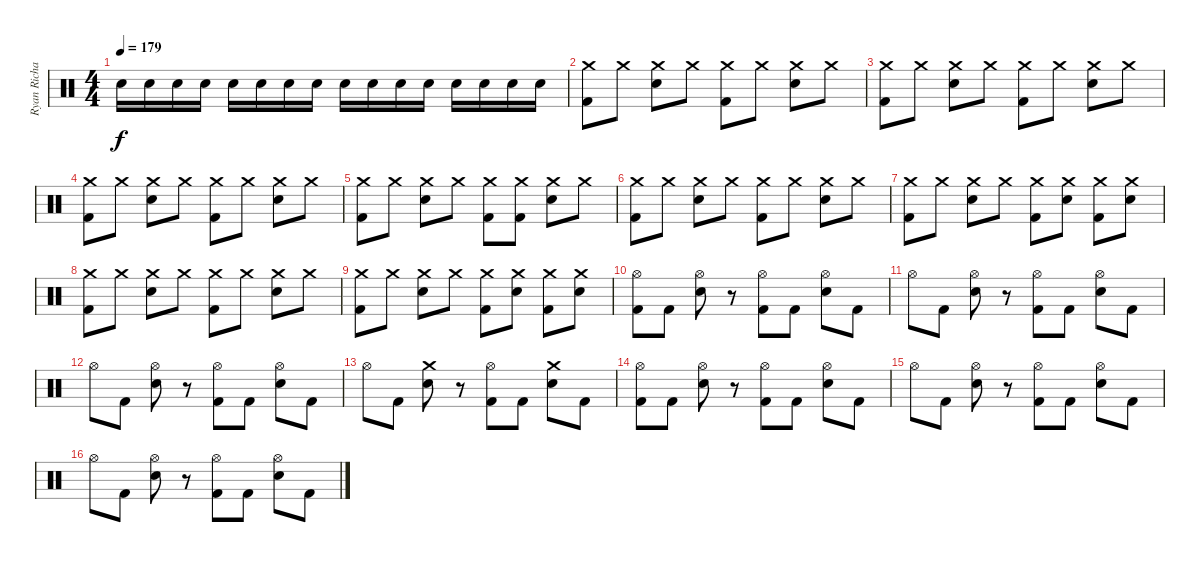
\track ("Ryan Richards" "Ryan Richa") {instrument percussion}
\staff {score}
\articulation defaults
\ts (4 4)
\tempo 179
\clef neutral
\ks c "Snare (hit) 2".16{dy f} "Snare (hit) 2".16 "Snare (hit) 2".16 "Snare (hit) 2".16 "Snare (hit) 2".16 "Snare (hit) 2".16 "Snare (hit) 2".16 "Snare (hit) 2".16 "Snare (hit) 2".16 "Snare (hit) 2".16 "Snare (hit) 2".16 "Snare (hit) 2".16 "Snare (hit) 2".16 "Snare (hit) 2".16 "Snare (hit) 2".16 "Snare (hit) 2".16
|
("Crash medium (hit)" "Kick (hit) 2").8 "Crash medium (hit)".8 ("Crash medium (hit)" "Snare (hit) 2").8 "Crash medium (hit)".8 ("Crash medium (hit)" "Kick (hit) 2").8 "Crash medium (hit)".8 ("Crash medium (hit)" "Snare (hit) 2").8 "Crash medium (hit)".8 |
("Crash medium (hit)" "Kick (hit) 2").8 "Crash medium (hit)".8 ("Crash medium (hit)" "Snare (hit) 2").8 "Crash medium (hit)".8 ("Crash medium (hit)" "Kick (hit) 2").8 "Crash medium (hit)".8 ("Crash medium (hit)" "Snare (hit) 2").8 "Crash medium (hit)".8 |
("Crash medium (hit)" "Kick (hit) 2").8 "Crash medium (hit)".8 ("Crash medium (hit)" "Snare (hit) 2").8 "Crash medium (hit)".8 ("Crash medium (hit)" "Kick (hit) 2").8 "Crash medium (hit)".8 ("Crash medium (hit)" "Snare (hit) 2").8 "Crash medium (hit)".8 |
("Crash medium (hit)" "Kick (hit) 2").8 "Crash medium (hit)".8 ("Crash medium (hit)" "Snare (hit) 2").8 "Crash medium (hit)".8 ("Crash medium (hit)" "Kick (hit) 2").8 ("Crash medium (hit)" "Kick (hit) 2").8 ("Crash medium (hit)" "Snare (hit) 2").8 "Crash medium (hit)".8 |
("Crash medium (hit)" "Kick (hit) 2").8 "Crash medium (hit)".8 ("Crash medium (hit)" "Snare (hit) 2").8 "Crash medium (hit)".8 ("Crash medium (hit)" "Kick (hit) 2").8 "Crash medium (hit)".8 ("Crash medium (hit)" "Snare (hit) 2").8 "Crash medium (hit)".8 |
("Crash medium (hit)" "Kick (hit) 2").8 "Crash medium (hit)".8 ("Crash medium (hit)" "Snare (hit) 2").8 "Crash medium (hit)".8 ("Crash medium (hit)" "Kick (hit) 2").8 ("Crash medium (hit)" "Snare (hit) 2").8 ("Crash medium (hit)" "Kick (hit) 2").8 ("Crash medium (hit)" "Snare (hit) 2").8 |
("Crash medium (hit)" "Kick (hit) 2").8 "Crash medium (hit)".8 ("Crash medium (hit)" "Snare (hit) 2").8 "Crash medium (hit)".8 ("Crash medium (hit)" "Kick (hit) 2").8 "Crash medium (hit)".8 ("Crash medium (hit)" "Snare (hit) 2").8 "Crash medium (hit)".8 |
("Crash medium (hit)" "Kick (hit) 2").8 "Crash medium (hit)".8 ("Crash medium (hit)" "Snare (hit) 2").8 "Crash medium (hit)".8 ("Crash medium (hit)" "Kick (hit) 2").8 ("Crash medium (hit)" "Snare (hit) 2").8 ("Crash medium (hit)" "Kick (hit) 2").8 ("Crash medium (hit)" "Snare (hit) 2").8 |
("Hi-Hat (open)" "Kick (hit) 2").8 "Kick (hit) 2".8 ("Hi-Hat (open)" "Snare (hit) 2").8 r.8 ("Hi-Hat (open)" "Kick (hit) 2").8 "Kick (hit) 2".8 ("Hi-Hat (open)" "Snare (hit) 2").8 "Kick (hit) 2".8 |
"Hi-Hat (open)".8 "Kick (hit) 2".8 ("Hi-Hat (open)" "Snare (hit) 2").8 r.8 ("Hi-Hat (open)" "Kick (hit) 2").8 "Kick (hit) 2".8 ("Hi-Hat (open)" "Snare (hit) 2").8 "Kick (hit) 2".8 |
"Hi-Hat (open)".8 "Kick (hit) 2".8 ("Hi-Hat (open)" "Snare (hit) 2").8 r.8 ("Hi-Hat (open)" "Kick (hit) 2").8 "Kick (hit) 2".8 ("Hi-Hat (open)" "Snare (hit) 2").8 "Kick (hit) 2".8 |
"Hi-Hat (open)".8 "Kick (hit) 2".8 ("Crash medium (hit)" "Snare (hit) 2").8 r.8 ("Hi-Hat (open)" "Kick (hit) 2").8 "Kick (hit) 2".8 ("Crash medium (hit)" "Snare (hit) 2").8 "Kick (hit) 2".8 |
("Hi-Hat (open)" "Kick (hit) 2").8 "Kick (hit) 2".8 ("Hi-Hat (open)" "Snare (hit) 2").8 r.8 ("Hi-Hat (open)" "Kick (hit) 2").8 "Kick (hit) 2".8 ("Hi-Hat (open)" "Snare (hit) 2").8 "Kick (hit) 2".8 |
"Hi-Hat (open)".8 "Kick (hit) 2".8 ("Hi-Hat (open)" "Snare (hit) 2").8 r.8 ("Hi-Hat (open)" "Kick (hit) 2").8 "Kick (hit) 2".8 ("Hi-Hat (open)" "Snare (hit) 2").8 "Kick (hit) 2".8 |
"Hi-Hat (open)".8 "Kick (hit) 2".8 ("Hi-Hat (open)" "Snare (hit) 2").8 r.8 ("Hi-Hat (open)" "Kick (hit) 2").8 "Kick (hit) 2".8 ("Hi-Hat (open)" "Snare (hit) 2").8 "Kick (hit) 2".8
